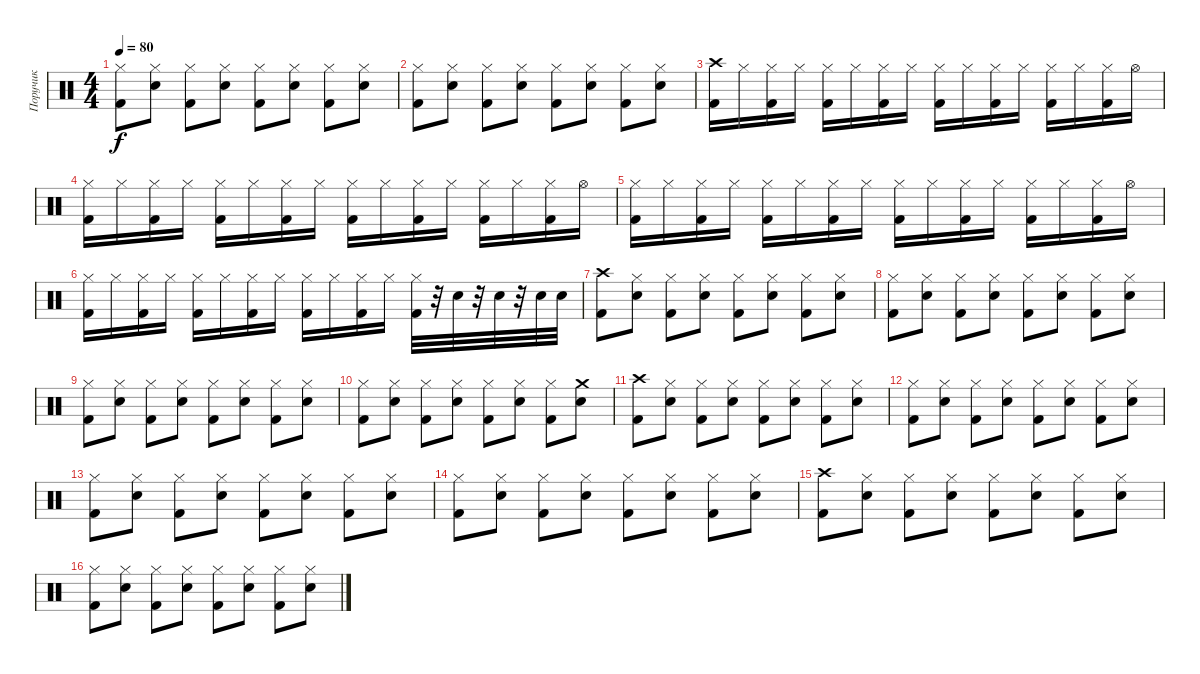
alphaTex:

\track ("Поручик" "Поручик") {instrument percussion}
\staff {score}
\articulation defaults
\ts (4 4)
\tempo 80
\clef neutral
\ks c
("Hi-Hat (closed)" "Kick (hit) 2").8{dy f} ("Hi-Hat (closed)" "Electric Snare (hit)").8 ("Hi-Hat (closed)" "Kick (hit) 2").8 ("Hi-Hat (closed)" "Electric Snare (hit)").8 ("Hi-Hat (closed)" "Kick (hit) 2").8 ("Hi-Hat (closed)" "Electric Snare (hit)").8 ("Hi-Hat (closed)" "Kick (hit) 2").8 ("Hi-Hat (closed)" "Electric Snare (hit)").8 |
("Hi-Hat (closed)" "Kick (hit) 2").8 ("Hi-Hat (closed)" "Electric Snare (hit)").8 ("Hi-Hat (closed)" "Kick (hit) 2").8 ("Hi-Hat (closed)" "Electric Snare (hit)").8 ("Hi-Hat (closed)" "Kick (hit) 2").8 ("Hi-Hat (closed)" "Electric Snare (hit)").8 ("Hi-Hat (closed)" "Kick (hit) 2").8 ("Hi-Hat (closed)" "Electric Snare (hit)").8 |
("Crash high (hit)" "Kick (hit) 2").16 "Hi-Hat (closed)".16 ("Hi-Hat (closed)" "Kick (hit) 2").16 "Hi-Hat (closed)".16 ("Hi-Hat (closed)" "Kick (hit) 2").16 "Hi-Hat (closed)".16 ("Hi-Hat (closed)" "Kick (hit) 2").16 "Hi-Hat (closed)".16 ("Hi-Hat (closed)" "Kick (hit) 2").16 "Hi-Hat (closed)".16 ("Hi-Hat (closed)" "Kick (hit) 2").16 "Hi-Hat (closed)".16 ("Hi-Hat (closed)" "Kick (hit) 2").16 "Hi-Hat (closed)".16 ("Hi-Hat (closed)" "Kick (hit) 2").16 "Hi-Hat (open)".16 |
("Hi-Hat (closed)" "Kick (hit) 2").16 "Hi-Hat (closed)".16 ("Hi-Hat (closed)" "Kick (hit) 2").16 "Hi-Hat (closed)".16 ("Hi-Hat (closed)" "Kick (hit) 2").16 "Hi-Hat (closed)".16 ("Hi-Hat (closed)" "Kick (hit) 2").16 "Hi-Hat (closed)".16 ("Hi-Hat (closed)" "Kick (hit) 2").16 "Hi-Hat (closed)".16 ("Hi-Hat (closed)" "Kick (hit) 2").16 "Hi-Hat (closed)".16 ("Hi-Hat (closed)" "Kick (hit) 2").16 "Hi-Hat (closed)".16 ("Hi-Hat (closed)" "Kick (hit) 2").16 "Hi-Hat (open)".16 |
("Hi-Hat (closed)" "Kick (hit) 2").16 "Hi-Hat (closed)".16 ("Hi-Hat (closed)" "Kick (hit) 2").16 "Hi-Hat (closed)".16 ("Hi-Hat (closed)" "Kick (hit) 2").16 "Hi-Hat (closed)".16 ("Hi-Hat (closed)" "Kick (hit) 2").16 "Hi-Hat (closed)".16 ("Hi-Hat (closed)" "Kick (hit) 2").16 "Hi-Hat (closed)".16 ("Hi-Hat (closed)" "Kick (hit) 2").16 "Hi-Hat (closed)".16 ("Hi-Hat (closed)" "Kick (hit) 2").16 "Hi-Hat (closed)".16 ("Hi-Hat (closed)" "Kick (hit) 2").16 "Hi-Hat (open)".16 |
("Hi-Hat (closed)" "Kick (hit) 2").16 "Hi-Hat (closed)".16 ("Hi-Hat (closed)" "Kick (hit) 2").16 "Hi-Hat (closed)".16 ("Hi-Hat (closed)" "Kick (hit) 2").16 "Hi-Hat (closed)".16 ("Hi-Hat (closed)" "Kick (hit) 2").16 "Hi-Hat (closed)".16 ("Hi-Hat (closed)" "Kick (hit) 2").16 "Hi-Hat (closed)".16 ("Hi-Hat (closed)" "Kick (hit) 2").16 "Hi-Hat (closed)".16 ("Hi-Hat (closed)" "Kick (hit) 2").32 r.32 "Electric Snare (hit)".32 r.32 "Electric Snare (hit)".32 r.32 "Electric Snare (hit)".32 "Electric Snare (hit)".32 |
("Crash high (hit)" "Kick (hit) 2").8 ("Hi-Hat (closed)" "Electric Snare (hit)").8 ("Hi-Hat (closed)" "Kick (hit) 2").8 ("Hi-Hat (closed)" "Electric Snare (hit)").8 ("Hi-Hat (closed)" "Kick (hit) 2").8 ("Hi-Hat (closed)" "Electric Snare (hit)").8 ("Hi-Hat (closed)" "Kick (hit) 2").8 ("Hi-Hat (closed)" "Electric Snare (hit)").8 |
("Hi-Hat (closed)" "Kick (hit) 2").8 ("Hi-Hat (closed)" "Electric Snare (hit)").8 ("Hi-Hat (closed)" "Kick (hit) 2").8 ("Hi-Hat (closed)" "Electric Snare (hit)").8 ("Hi-Hat (closed)" "Kick (hit) 2").8 ("Hi-Hat (closed)" "Electric Snare (hit)").8 ("Hi-Hat (closed)" "Kick (hit) 2").8 ("Hi-Hat (closed)" "Electric Snare (hit)").8 |
("Hi-Hat (closed)" "Kick (hit) 2").8 ("Hi-Hat (closed)" "Electric Snare (hit)").8 ("Hi-Hat (closed)" "Kick (hit) 2").8 ("Hi-Hat (closed)" "Electric Snare (hit)").8 ("Hi-Hat (closed)" "Kick (hit) 2").8 ("Hi-Hat (closed)" "Electric Snare (hit)").8 ("Hi-Hat (closed)" "Kick (hit) 2").8 ("Hi-Hat (closed)" "Electric Snare (hit)").8 |
("Hi-Hat (closed)" "Kick (hit) 2").8 ("Hi-Hat (closed)" "Electric Snare (hit)").8 ("Hi-Hat (closed)" "Kick (hit) 2").8 ("Hi-Hat (closed)" "Electric Snare (hit)").8 ("Hi-Hat (closed)" "Kick (hit) 2").8 ("Hi-Hat (closed)" "Electric Snare (hit)").8 ("Hi-Hat (closed)" "Kick (hit) 2").8 ("Crash medium (hit)" "Electric Snare (hit)").8 |
("Crash high (hit)" "Kick (hit) 2").8 ("Hi-Hat (closed)" "Electric Snare (hit)").8 ("Hi-Hat (closed)" "Kick (hit) 2").8 ("Hi-Hat (closed)" "Electric Snare (hit)").8 ("Hi-Hat (closed)" "Kick (hit) 2").8 ("Hi-Hat (closed)" "Electric Snare (hit)").8 ("Hi-Hat (closed)" "Kick (hit) 2").8 ("Hi-Hat (closed)" "Electric Snare (hit)").8 |
("Hi-Hat (closed)" "Kick (hit) 2").8 ("Hi-Hat (closed)" "Electric Snare (hit)").8 ("Hi-Hat (closed)" "Kick (hit) 2").8 ("Hi-Hat (closed)" "Electric Snare (hit)").8 ("Hi-Hat (closed)" "Kick (hit) 2").8 ("Hi-Hat (closed)" "Electric Snare (hit)").8 ("Hi-Hat (closed)" "Kick (hit) 2").8 ("Hi-Hat (closed)" "Electric Snare (hit)").8 |
("Hi-Hat (closed)" "Kick (hit) 2").8 ("Hi-Hat (closed)" "Electric Snare (hit)").8 ("Hi-Hat (closed)" "Kick (hit) 2").8 ("Hi-Hat (closed)" "Electric Snare (hit)").8 ("Hi-Hat (closed)" "Kick (hit) 2").8 ("Hi-Hat (closed)" "Electric Snare (hit)").8 ("Hi-Hat (closed)" "Kick (hit) 2").8 ("Hi-Hat (closed)" "Electric Snare (hit)").8 |
("Hi-Hat (closed)" "Kick (hit) 2").8 ("Hi-Hat (closed)" "Electric Snare (hit)").8 ("Hi-Hat (closed)" "Kick (hit) 2").8 ("Hi-Hat (closed)" "Electric Snare (hit)").8 ("Hi-Hat (closed)" "Kick (hit) 2").8 ("Hi-Hat (closed)" "Electric Snare (hit)").8 ("Hi-Hat (closed)" "Kick (hit) 2").8 ("Hi-Hat (closed)" "Electric Snare (hit)").8 |
("Crash high (hit)" "Kick (hit) 2").8 ("Hi-Hat (closed)" "Electric Snare (hit)").8 ("Hi-Hat (closed)" "Kick (hit) 2").8 ("Hi-Hat (closed)" "Electric Snare (hit)").8 ("Hi-Hat (closed)" "Kick (hit) 2").8 ("Hi-Hat (closed)" "Electric Snare (hit)").8 ("Hi-Hat (closed)" "Kick (hit) 2").8 ("Hi-Hat (closed)" "Electric Snare (hit)").8 |
("Hi-Hat (closed)" "Kick (hit) 2").8 ("Hi-Hat (closed)" "Electric Snare (hit)").8 ("Hi-Hat (closed)" "Kick (hit) 2").8 ("Hi-Hat (closed)" "Electric Snare (hit)").8 ("Hi-Hat (closed)" "Kick (hit) 2").8 ("Hi-Hat (closed)" "Electric Snare (hit)").8 ("Hi-Hat (closed)" "Kick (hit) 2").8 ("Hi-Hat (closed)" "Electric Snare (hit)").8
